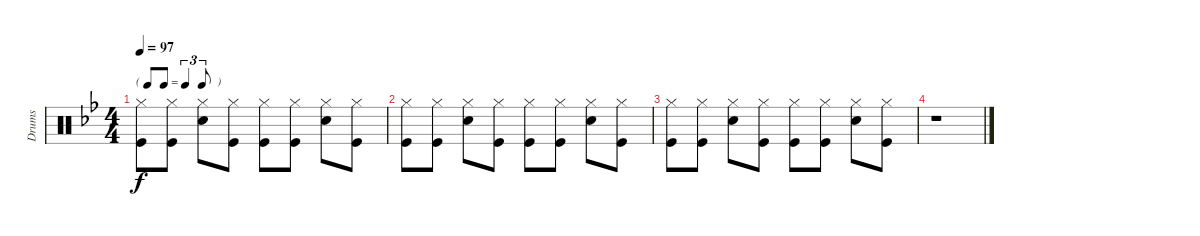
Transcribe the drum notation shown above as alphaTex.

\track ("Drums" "Drums") {instrument percussion}
\staff {score}
\articulation defaults
\ts (4 4)
\tf triplet8th
\tempo 97
\clef neutral
\ks bb
("Kick (hit)" "Hi-Hat (closed)").8{dy f} ("Kick (hit)" "Hi-Hat (closed)").8 ("Snare (hit) 2" "Hi-Hat (closed)").8 ("Kick (hit)" "Hi-Hat (closed)").8 ("Kick (hit)" "Hi-Hat (closed)").8 ("Kick (hit)" "Hi-Hat (closed)").8 ("Snare (hit) 2" "Hi-Hat (closed)").8 ("Kick (hit)" "Hi-Hat (closed)").8 |
("Kick (hit)" "Hi-Hat (closed)").8 ("Kick (hit)" "Hi-Hat (closed)").8 ("Snare (hit) 2" "Hi-Hat (closed)").8 ("Kick (hit)" "Hi-Hat (closed)").8 ("Kick (hit)" "Hi-Hat (closed)").8 ("Kick (hit)" "Hi-Hat (closed)").8 ("Snare (hit) 2" "Hi-Hat (closed)").8 ("Kick (hit)" "Hi-Hat (closed)").8 |
("Kick (hit)" "Hi-Hat (closed)").8 ("Kick (hit)" "Hi-Hat (closed)").8 ("Snare (hit) 2" "Hi-Hat (closed)").8 ("Kick (hit)" "Hi-Hat (closed)").8 ("Kick (hit)" "Hi-Hat (closed)").8 ("Kick (hit)" "Hi-Hat (closed)").8 ("Snare (hit) 2" "Hi-Hat (closed)").8 ("Kick (hit)" "Hi-Hat (closed)").8 |
r.1
